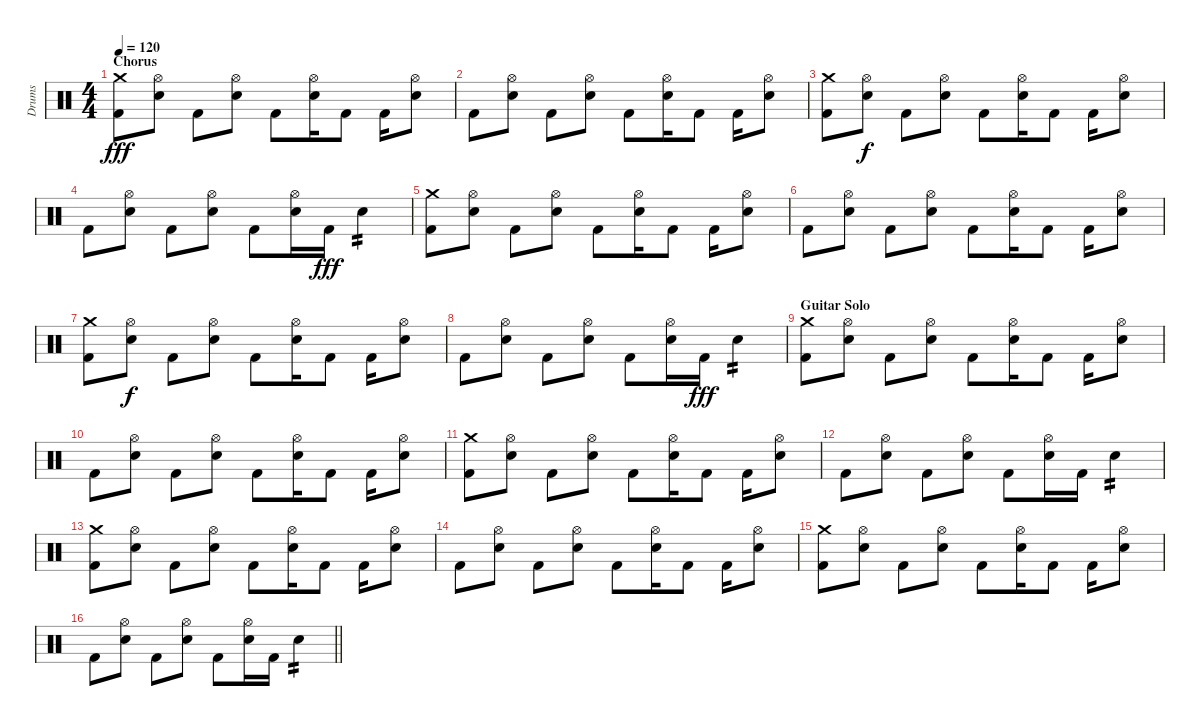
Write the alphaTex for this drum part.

\track ("Drums" "Drums") {instrument percussion}
\staff {score}
\articulation defaults
\ts (4 4)
\section ("" "Chorus")
\tempo 120
\clef neutral
\ks c
("Crash medium (hit)" "Kick (hit) 2").8{dy fff} ("Hi-Hat (open)" "Snare (hit) 2").8 "Kick (hit) 2".8 ("Hi-Hat (open)" "Snare (hit) 2").8 "Kick (hit) 2".8 ("Hi-Hat (open)" "Snare (hit) 2").16 "Kick (hit) 2".8 "Kick (hit) 2".16 ("Hi-Hat (open)" "Snare (hit) 2").8 |
"Kick (hit) 2".8 ("Hi-Hat (open)" "Snare (hit) 2").8 "Kick (hit) 2".8 ("Hi-Hat (open)" "Snare (hit) 2").8 "Kick (hit) 2".8 ("Hi-Hat (open)" "Snare (hit) 2").16 "Kick (hit) 2".8 "Kick (hit) 2".16 ("Hi-Hat (open)" "Snare (hit) 2").8 |
("Crash medium (hit)" "Kick (hit) 2").8 ("Hi-Hat (open)" "Snare (hit) 2").8{dy f} "Kick (hit) 2".8 ("Hi-Hat (open)" "Snare (hit) 2").8 "Kick (hit) 2".8 ("Hi-Hat (open)" "Snare (hit) 2").16 "Kick (hit) 2".8 "Kick (hit) 2".16 ("Hi-Hat (open)" "Snare (hit) 2").8 |
"Kick (hit) 2".8 ("Hi-Hat (open)" "Snare (hit) 2").8 "Kick (hit) 2".8 ("Hi-Hat (open)" "Snare (hit) 2").8 "Kick (hit) 2".8 ("Hi-Hat (open)" "Snare (hit) 2").16 "Kick (hit) 2".16{dy fff} "Snare (hit) 2".4{tp 2} |
("Crash medium (hit)" "Kick (hit) 2").8 ("Hi-Hat (open)" "Snare (hit) 2").8 "Kick (hit) 2".8 ("Hi-Hat (open)" "Snare (hit) 2").8 "Kick (hit) 2".8 ("Hi-Hat (open)" "Snare (hit) 2").16 "Kick (hit) 2".8 "Kick (hit) 2".16 ("Hi-Hat (open)" "Snare (hit) 2").8 |
"Kick (hit) 2".8 ("Hi-Hat (open)" "Snare (hit) 2").8 "Kick (hit) 2".8 ("Hi-Hat (open)" "Snare (hit) 2").8 "Kick (hit) 2".8 ("Hi-Hat (open)" "Snare (hit) 2").16 "Kick (hit) 2".8 "Kick (hit) 2".16 ("Hi-Hat (open)" "Snare (hit) 2").8 |
("Crash medium (hit)" "Kick (hit) 2").8 ("Hi-Hat (open)" "Snare (hit) 2").8{dy f} "Kick (hit) 2".8 ("Hi-Hat (open)" "Snare (hit) 2").8 "Kick (hit) 2".8 ("Hi-Hat (open)" "Snare (hit) 2").16 "Kick (hit) 2".8 "Kick (hit) 2".16 ("Hi-Hat (open)" "Snare (hit) 2").8 |
"Kick (hit) 2".8 ("Hi-Hat (open)" "Snare (hit) 2").8 "Kick (hit) 2".8 ("Hi-Hat (open)" "Snare (hit) 2").8 "Kick (hit) 2".8 ("Hi-Hat (open)" "Snare (hit) 2").16 "Kick (hit) 2".16{dy fff} "Snare (hit) 2".4{tp 2} |
\section ("" "Guitar Solo")
("Crash medium (hit)" "Kick (hit) 2").8 ("Hi-Hat (open)" "Snare (hit) 2").8 "Kick (hit) 2".8 ("Hi-Hat (open)" "Snare (hit) 2").8 "Kick (hit) 2".8 ("Hi-Hat (open)" "Snare (hit) 2").16 "Kick (hit) 2".8 "Kick (hit) 2".16 ("Hi-Hat (open)" "Snare (hit) 2").8 |
"Kick (hit) 2".8 ("Hi-Hat (open)" "Snare (hit) 2").8 "Kick (hit) 2".8 ("Hi-Hat (open)" "Snare (hit) 2").8 "Kick (hit) 2".8 ("Hi-Hat (open)" "Snare (hit) 2").16 "Kick (hit) 2".8 "Kick (hit) 2".16 ("Hi-Hat (open)" "Snare (hit) 2").8 |
("Crash medium (hit)" "Kick (hit) 2").8 ("Hi-Hat (open)" "Snare (hit) 2").8 "Kick (hit) 2".8 ("Hi-Hat (open)" "Snare (hit) 2").8 "Kick (hit) 2".8 ("Hi-Hat (open)" "Snare (hit) 2").16 "Kick (hit) 2".8 "Kick (hit) 2".16 ("Hi-Hat (open)" "Snare (hit) 2").8 |
"Kick (hit) 2".8 ("Hi-Hat (open)" "Snare (hit) 2").8 "Kick (hit) 2".8 ("Hi-Hat (open)" "Snare (hit) 2").8 "Kick (hit) 2".8 ("Hi-Hat (open)" "Snare (hit) 2").16 "Kick (hit) 2".16 "Snare (hit) 2".4{tp 2} |
("Crash medium (hit)" "Kick (hit) 2").8 ("Hi-Hat (open)" "Snare (hit) 2").8 "Kick (hit) 2".8 ("Hi-Hat (open)" "Snare (hit) 2").8 "Kick (hit) 2".8 ("Hi-Hat (open)" "Snare (hit) 2").16 "Kick (hit) 2".8 "Kick (hit) 2".16 ("Hi-Hat (open)" "Snare (hit) 2").8 |
"Kick (hit) 2".8 ("Hi-Hat (open)" "Snare (hit) 2").8 "Kick (hit) 2".8 ("Hi-Hat (open)" "Snare (hit) 2").8 "Kick (hit) 2".8 ("Hi-Hat (open)" "Snare (hit) 2").16 "Kick (hit) 2".8 "Kick (hit) 2".16 ("Hi-Hat (open)" "Snare (hit) 2").8 |
("Crash medium (hit)" "Kick (hit) 2").8 ("Hi-Hat (open)" "Snare (hit) 2").8 "Kick (hit) 2".8 ("Hi-Hat (open)" "Snare (hit) 2").8 "Kick (hit) 2".8 ("Hi-Hat (open)" "Snare (hit) 2").16 "Kick (hit) 2".8 "Kick (hit) 2".16 ("Hi-Hat (open)" "Snare (hit) 2").8 |
\barLineRight lightlight "Kick (hit) 2".8
("Hi-Hat (open)" "Snare (hit) 2").8 "Kick (hit) 2".8 ("Hi-Hat (open)" "Snare (hit) 2").8 "Kick (hit) 2".8 ("Hi-Hat (open)" "Snare (hit) 2").16 "Kick (hit) 2".16 "Snare (hit) 2".4{tp 2}
